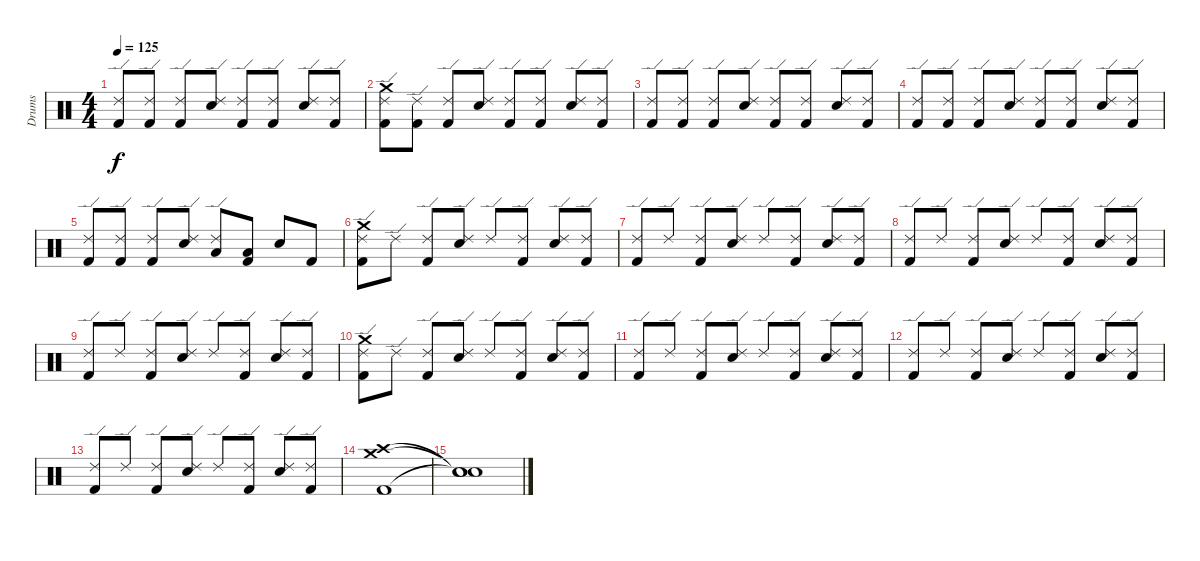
\track ("Drums" "Drums") {instrument percussion}
\staff {score}
\articulation defaults
\ts (4 4)
\tempo 125
\clef neutral
\ks c
("Ride (edge) 2" "Kick (hit) 2").8{dy f} ("Ride (edge) 2" "Kick (hit) 2").8 ("Ride (edge) 2" "Kick (hit) 2").8 ("Ride (edge) 2" "Electric Snare (hit)").8 ("Ride (edge) 2" "Kick (hit) 2").8 ("Ride (edge) 2" "Kick (hit) 2").8 ("Ride (edge) 2" "Electric Snare (hit)").8 ("Ride (edge) 2" "Kick (hit) 2").8 |
("Ride (edge) 2" "Crash medium (hit)" "Kick (hit) 2").8 ("Ride (edge) 2" "Kick (hit) 2").8 ("Ride (edge) 2" "Kick (hit) 2").8 ("Ride (edge) 2" "Electric Snare (hit)").8 ("Ride (edge) 2" "Kick (hit) 2").8 ("Ride (edge) 2" "Kick (hit) 2").8 ("Ride (edge) 2" "Electric Snare (hit)").8 ("Ride (edge) 2" "Kick (hit) 2").8 |
("Ride (edge) 2" "Kick (hit) 2").8 ("Ride (edge) 2" "Kick (hit) 2").8 ("Ride (edge) 2" "Kick (hit) 2").8 ("Ride (edge) 2" "Electric Snare (hit)").8 ("Ride (edge) 2" "Kick (hit) 2").8 ("Ride (edge) 2" "Kick (hit) 2").8 ("Ride (edge) 2" "Electric Snare (hit)").8 ("Ride (edge) 2" "Kick (hit) 2").8 |
("Ride (edge) 2" "Kick (hit) 2").8 ("Ride (edge) 2" "Kick (hit) 2").8 ("Ride (edge) 2" "Kick (hit) 2").8 ("Ride (edge) 2" "Electric Snare (hit)").8 ("Ride (edge) 2" "Kick (hit) 2").8 ("Ride (edge) 2" "Kick (hit) 2").8 ("Ride (edge) 2" "Electric Snare (hit)").8 ("Ride (edge) 2" "Kick (hit) 2").8 |
("Ride (edge) 2" "Kick (hit) 2").8 ("Ride (edge) 2" "Kick (hit) 2").8 ("Ride (edge) 2" "Kick (hit) 2").8 ("Ride (edge) 2" "Electric Snare (hit)").8 ("Ride (edge) 2" "Low Tom (hit)").8 ("Low Tom (hit)" "Kick (hit) 2").8 "Electric Snare (hit)".8 "Kick (hit) 2".8 |
("Ride (edge) 2" "Crash medium (hit)" "Kick (hit) 2").8 "Ride (edge) 2".8 ("Ride (edge) 2" "Kick (hit) 2").8 ("Ride (edge) 2" "Electric Snare (hit)").8 "Ride (edge) 2".8 ("Ride (edge) 2" "Kick (hit) 2").8 ("Ride (edge) 2" "Electric Snare (hit)").8 ("Ride (edge) 2" "Kick (hit) 2").8 |
("Ride (edge) 2" "Kick (hit) 2").8 "Ride (edge) 2".8 ("Ride (edge) 2" "Kick (hit) 2").8 ("Ride (edge) 2" "Electric Snare (hit)").8 "Ride (edge) 2".8 ("Ride (edge) 2" "Kick (hit) 2").8 ("Ride (edge) 2" "Electric Snare (hit)").8 ("Ride (edge) 2" "Kick (hit) 2").8 |
("Ride (edge) 2" "Kick (hit) 2").8 "Ride (edge) 2".8 ("Ride (edge) 2" "Kick (hit) 2").8 ("Ride (edge) 2" "Electric Snare (hit)").8 "Ride (edge) 2".8 ("Ride (edge) 2" "Kick (hit) 2").8 ("Ride (edge) 2" "Electric Snare (hit)").8 ("Ride (edge) 2" "Kick (hit) 2").8 |
("Ride (edge) 2" "Kick (hit) 2").8 "Ride (edge) 2".8 ("Ride (edge) 2" "Kick (hit) 2").8 ("Ride (edge) 2" "Electric Snare (hit)").8 "Ride (edge) 2".8 ("Ride (edge) 2" "Kick (hit) 2").8 ("Ride (edge) 2" "Electric Snare (hit)").8 ("Ride (edge) 2" "Kick (hit) 2").8 |
("Ride (edge) 2" "Crash medium (hit)" "Kick (hit) 2").8 "Ride (edge) 2".8 ("Ride (edge) 2" "Kick (hit) 2").8 ("Ride (edge) 2" "Electric Snare (hit)").8 "Ride (edge) 2".8 ("Ride (edge) 2" "Kick (hit) 2").8 ("Ride (edge) 2" "Electric Snare (hit)").8 ("Ride (edge) 2" "Kick (hit) 2").8 |
("Ride (edge) 2" "Kick (hit) 2").8 "Ride (edge) 2".8 ("Ride (edge) 2" "Kick (hit) 2").8 ("Ride (edge) 2" "Electric Snare (hit)").8 "Ride (edge) 2".8 ("Ride (edge) 2" "Kick (hit) 2").8 ("Ride (edge) 2" "Electric Snare (hit)").8 ("Ride (edge) 2" "Kick (hit) 2").8 |
("Ride (edge) 2" "Kick (hit) 2").8 "Ride (edge) 2".8 ("Ride (edge) 2" "Kick (hit) 2").8 ("Ride (edge) 2" "Electric Snare (hit)").8 "Ride (edge) 2".8 ("Ride (edge) 2" "Kick (hit) 2").8 ("Ride (edge) 2" "Electric Snare (hit)").8 ("Ride (edge) 2" "Kick (hit) 2").8 |
("Ride (edge) 2" "Kick (hit) 2").8 "Ride (edge) 2".8 ("Ride (edge) 2" "Kick (hit) 2").8 ("Ride (edge) 2" "Electric Snare (hit)").8 "Ride (edge) 2".8 ("Ride (edge) 2" "Kick (hit) 2").8 ("Ride (edge) 2" "Electric Snare (hit)").8 ("Ride (edge) 2" "Kick (hit) 2").8 |
("Crash high (hit)" "Crash medium (hit)" "Kick (hit) 2").1 |
("Snare (hit)"{t} "Snare (hit)"{t} "Snare (hit)"{t}).1
